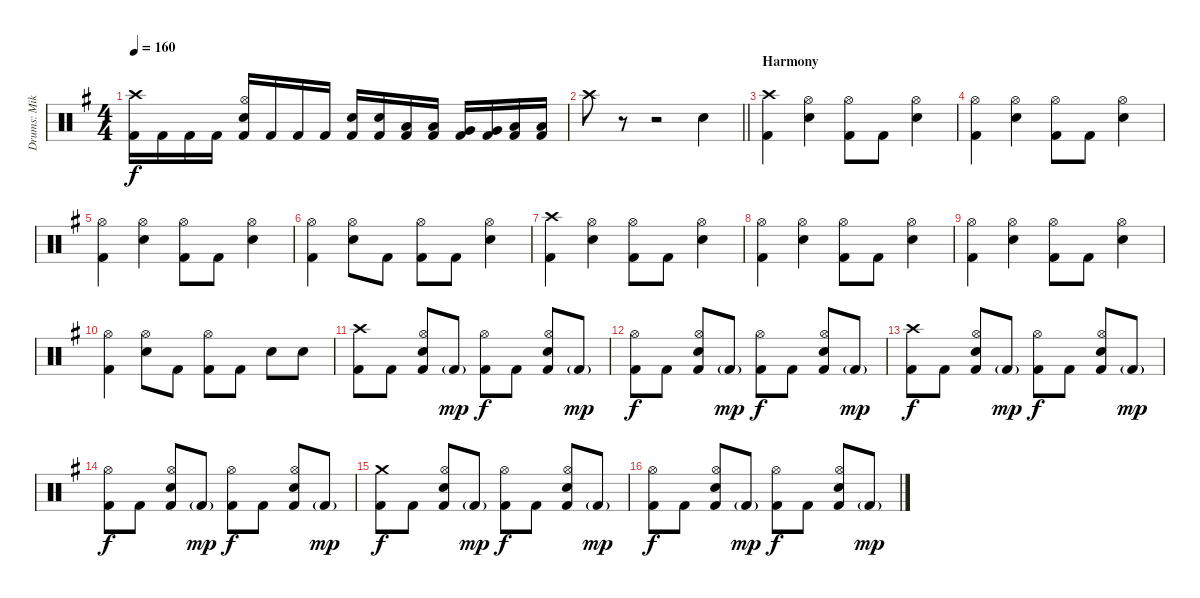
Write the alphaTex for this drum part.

\track ("Drums: Mikko Korsbäck" "Drums: Mik") {instrument percussion}
\staff {score}
\articulation defaults
\ts (4 4)
\tempo 160
\clef neutral
\ks eminor
("Crash high (hit)" "Kick (hit) 2").16{dy f} "Kick (hit) 2".16 "Kick (hit) 2".16 "Kick (hit) 2".16 ("Hi-Hat (open)" "Electric Snare (hit)" "Kick (hit) 2").16 "Kick (hit) 2".16 "Kick (hit) 2".16 "Kick (hit) 2".16 ("Electric Snare (hit)" "Kick (hit) 2").16 ("Electric Snare (hit)" "Kick (hit) 2").16 ("Low Tom (hit)" "Kick (hit) 2").16 ("Low Tom (hit)" "Kick (hit) 2").16 ("Very Low Tom (hit)" "Kick (hit) 2").16 ("Very Low Tom (hit)" "Kick (hit) 2").16 ("Low Tom (hit)" "Kick (hit) 2").16 ("Low Tom (hit)" "Kick (hit) 2").16 |
\barLineRight lightlight "Crash high (hit)".8
r.8 r.2 "Electric Snare (hit)".4 |
\section ("" "Harmony")
("Crash high (hit)" "Kick (hit) 2").4 ("Hi-Hat (open)" "Electric Snare (hit)").4 ("Hi-Hat (open)" "Kick (hit) 2").8 "Kick (hit) 2".8 ("Hi-Hat (open)" "Electric Snare (hit)").4 |
("Hi-Hat (open)" "Kick (hit) 2").4 ("Hi-Hat (open)" "Electric Snare (hit)").4 ("Hi-Hat (open)" "Kick (hit) 2").8 "Kick (hit) 2".8 ("Hi-Hat (open)" "Electric Snare (hit)").4 |
("Hi-Hat (open)" "Kick (hit) 2").4 ("Hi-Hat (open)" "Electric Snare (hit)").4 ("Hi-Hat (open)" "Kick (hit) 2").8 "Kick (hit) 2".8 ("Hi-Hat (open)" "Electric Snare (hit)").4 |
("Hi-Hat (open)" "Kick (hit) 2").4 ("Hi-Hat (open)" "Electric Snare (hit)").8 "Kick (hit) 2".8 ("Hi-Hat (open)" "Kick (hit) 2").8 "Kick (hit) 2".8 ("Hi-Hat (open)" "Electric Snare (hit)").4 |
("Crash high (hit)" "Kick (hit) 2").4 ("Hi-Hat (open)" "Electric Snare (hit)").4 ("Hi-Hat (open)" "Kick (hit) 2").8 "Kick (hit) 2".8 ("Hi-Hat (open)" "Electric Snare (hit)").4 |
("Hi-Hat (open)" "Kick (hit) 2").4 ("Hi-Hat (open)" "Electric Snare (hit)").4 ("Hi-Hat (open)" "Kick (hit) 2").8 "Kick (hit) 2".8 ("Hi-Hat (open)" "Electric Snare (hit)").4 |
("Hi-Hat (open)" "Kick (hit) 2").4 ("Hi-Hat (open)" "Electric Snare (hit)").4 ("Hi-Hat (open)" "Kick (hit) 2").8 "Kick (hit) 2".8 ("Hi-Hat (open)" "Electric Snare (hit)").4 |
("Hi-Hat (open)" "Kick (hit) 2").4 ("Hi-Hat (open)" "Electric Snare (hit)").8 "Kick (hit) 2".8 ("Hi-Hat (open)" "Kick (hit) 2").8 "Kick (hit) 2".8 "Electric Snare (hit)".8 "Electric Snare (hit)".8 |
("Crash high (hit)" "Kick (hit) 2").8 "Kick (hit) 2".8 ("Hi-Hat (open)" "Electric Snare (hit)" "Kick (hit) 2").8 "Kick (hit) 2"{g}.8{dy mp} ("Hi-Hat (open)" "Kick (hit) 2").8{dy f} "Kick (hit) 2".8 ("Hi-Hat (open)" "Electric Snare (hit)" "Kick (hit) 2").8 "Kick (hit) 2"{g}.8{dy mp} |
("Hi-Hat (open)" "Kick (hit) 2").8{dy f} "Kick (hit) 2".8 ("Hi-Hat (open)" "Electric Snare (hit)" "Kick (hit) 2").8 "Kick (hit) 2"{g}.8{dy mp} ("Hi-Hat (open)" "Kick (hit) 2").8{dy f} "Kick (hit) 2".8 ("Hi-Hat (open)" "Electric Snare (hit)" "Kick (hit) 2").8 "Kick (hit) 2"{g}.8{dy mp} |
("Crash high (hit)" "Kick (hit) 2").8{dy f} "Kick (hit) 2".8 ("Hi-Hat (open)" "Electric Snare (hit)" "Kick (hit) 2").8 "Kick (hit) 2"{g}.8{dy mp} ("Hi-Hat (open)" "Kick (hit) 2").8{dy f} "Kick (hit) 2".8 ("Hi-Hat (open)" "Electric Snare (hit)" "Kick (hit) 2").8 "Kick (hit) 2"{g}.8{dy mp} |
("Hi-Hat (open)" "Kick (hit) 2").8{dy f} "Kick (hit) 2".8 ("Hi-Hat (open)" "Electric Snare (hit)" "Kick (hit) 2").8 "Kick (hit) 2"{g}.8{dy mp} ("Hi-Hat (open)" "Kick (hit) 2").8{dy f} "Kick (hit) 2".8 ("Hi-Hat (open)" "Electric Snare (hit)" "Kick (hit) 2").8 "Kick (hit) 2"{g}.8{dy mp} |
("Crash medium (hit)" "Kick (hit) 2").8{dy f} "Kick (hit) 2".8 ("Hi-Hat (open)" "Electric Snare (hit)" "Kick (hit) 2").8 "Kick (hit) 2"{g}.8{dy mp} ("Hi-Hat (open)" "Kick (hit) 2").8{dy f} "Kick (hit) 2".8 ("Hi-Hat (open)" "Electric Snare (hit)" "Kick (hit) 2").8 "Kick (hit) 2"{g}.8{dy mp} |
("Hi-Hat (open)" "Kick (hit) 2").8{dy f} "Kick (hit) 2".8 ("Hi-Hat (open)" "Electric Snare (hit)" "Kick (hit) 2").8 "Kick (hit) 2"{g}.8{dy mp} ("Hi-Hat (open)" "Kick (hit) 2").8{dy f} "Kick (hit) 2".8 ("Hi-Hat (open)" "Electric Snare (hit)" "Kick (hit) 2").8 "Kick (hit) 2"{g}.8{dy mp}
